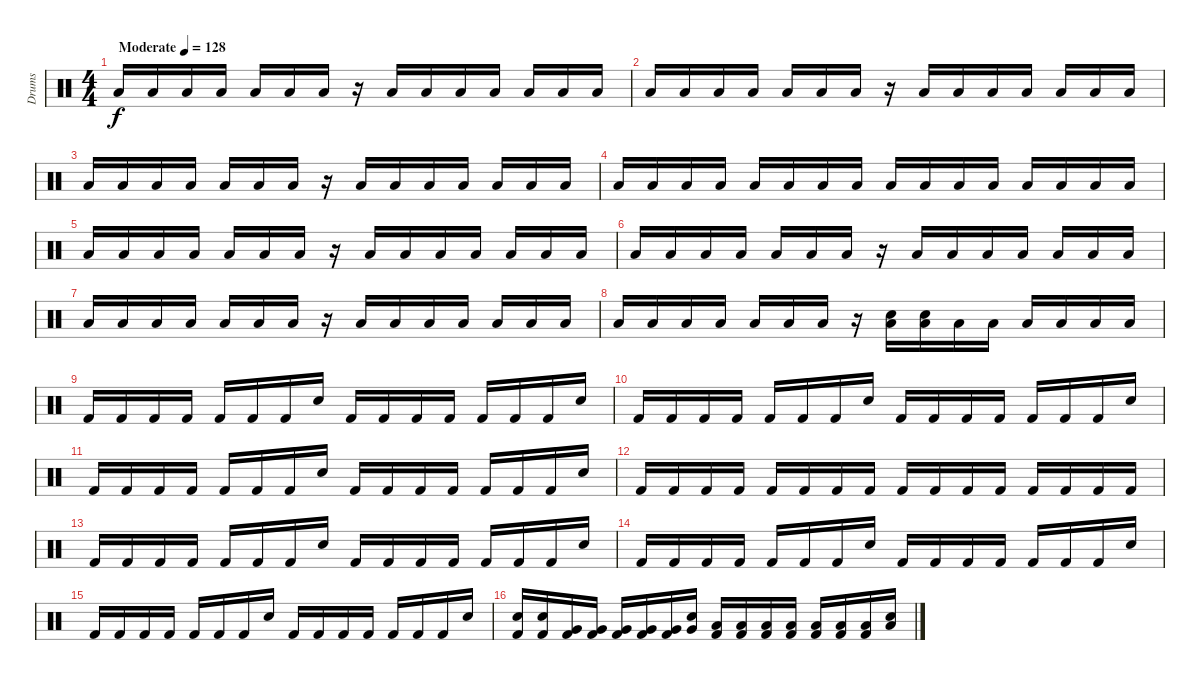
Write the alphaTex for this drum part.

\track ("Drums" "Drums") {instrument percussion}
\staff {score}
\articulation defaults
\ts (4 4)
\tempo (128 "Moderate")
\clef neutral
\ks c "Low Tom (hit)".16{dy f} "Low Tom (hit)".16 "Low Tom (hit)".16 "Low Tom (hit)".16 "Low Tom (hit)".16 "Low Tom (hit)".16 "Low Tom (hit)".16
r.16 "Low Tom (hit)".16 "Low Tom (hit)".16 "Low Tom (hit)".16 "Low Tom (hit)".16 "Low Tom (hit)".16 "Low Tom (hit)".16 "Low Tom (hit)".16 |
"Low Tom (hit)".16 "Low Tom (hit)".16 "Low Tom (hit)".16 "Low Tom (hit)".16 "Low Tom (hit)".16 "Low Tom (hit)".16 "Low Tom (hit)".16 r.16 "Low Tom (hit)".16 "Low Tom (hit)".16 "Low Tom (hit)".16 "Low Tom (hit)".16 "Low Tom (hit)".16 "Low Tom (hit)".16 "Low Tom (hit)".16 |
"Low Tom (hit)".16 "Low Tom (hit)".16 "Low Tom (hit)".16 "Low Tom (hit)".16 "Low Tom (hit)".16 "Low Tom (hit)".16 "Low Tom (hit)".16 r.16 "Low Tom (hit)".16 "Low Tom (hit)".16 "Low Tom (hit)".16 "Low Tom (hit)".16 "Low Tom (hit)".16 "Low Tom (hit)".16 "Low Tom (hit)".16 |
"Low Tom (hit)".16 "Low Tom (hit)".16 "Low Tom (hit)".16 "Low Tom (hit)".16 "Low Tom (hit)".16 "Low Tom (hit)".16 "Low Tom (hit)".16 "Low Tom (hit)".16 "Low Tom (hit)".16 "Low Tom (hit)".16 "Low Tom (hit)".16 "Low Tom (hit)".16 "Low Tom (hit)".16 "Low Tom (hit)".16 "Low Tom (hit)".16 "Low Tom (hit)".16 |
"Low Tom (hit)".16 "Low Tom (hit)".16 "Low Tom (hit)".16 "Low Tom (hit)".16 "Low Tom (hit)".16 "Low Tom (hit)".16 "Low Tom (hit)".16 r.16 "Low Tom (hit)".16 "Low Tom (hit)".16 "Low Tom (hit)".16 "Low Tom (hit)".16 "Low Tom (hit)".16 "Low Tom (hit)".16 "Low Tom (hit)".16 |
"Low Tom (hit)".16 "Low Tom (hit)".16 "Low Tom (hit)".16 "Low Tom (hit)".16 "Low Tom (hit)".16 "Low Tom (hit)".16 "Low Tom (hit)".16 r.16 "Low Tom (hit)".16 "Low Tom (hit)".16 "Low Tom (hit)".16 "Low Tom (hit)".16 "Low Tom (hit)".16 "Low Tom (hit)".16 "Low Tom (hit)".16 |
"Low Tom (hit)".16 "Low Tom (hit)".16 "Low Tom (hit)".16 "Low Tom (hit)".16 "Low Tom (hit)".16 "Low Tom (hit)".16 "Low Tom (hit)".16 r.16 "Low Tom (hit)".16 "Low Tom (hit)".16 "Low Tom (hit)".16 "Low Tom (hit)".16 "Low Tom (hit)".16 "Low Tom (hit)".16 "Low Tom (hit)".16 |
"Low Tom (hit)".16 "Low Tom (hit)".16 "Low Tom (hit)".16 "Low Tom (hit)".16 "Low Tom (hit)".16 "Low Tom (hit)".16 "Low Tom (hit)".16 r.16 ("Electric Snare (hit)" "Low Tom (hit)").16 ("Electric Snare (hit)" "Low Tom (hit)").16 "Low Tom (hit)".16 "Low Tom (hit)".16 "Low Tom (hit)".16 "Low Tom (hit)".16 "Low Tom (hit)".16 "Low Tom (hit)".16 |
"Kick (hit) 2".16 "Kick (hit) 2".16 "Kick (hit) 2".16 "Kick (hit) 2".16 "Kick (hit) 2".16 "Kick (hit) 2".16 "Kick (hit) 2".16 "Snare (hit)".16 "Kick (hit) 2".16 "Kick (hit) 2".16 "Kick (hit) 2".16 "Kick (hit) 2".16 "Kick (hit) 2".16 "Kick (hit) 2".16 "Kick (hit) 2".16 "Snare (hit)".16 |
"Kick (hit) 2".16 "Kick (hit) 2".16 "Kick (hit) 2".16 "Kick (hit) 2".16 "Kick (hit) 2".16 "Kick (hit) 2".16 "Kick (hit) 2".16 "Snare (hit)".16 "Kick (hit) 2".16 "Kick (hit) 2".16 "Kick (hit) 2".16 "Kick (hit) 2".16 "Kick (hit) 2".16 "Kick (hit) 2".16 "Kick (hit) 2".16 "Snare (hit)".16 |
"Kick (hit) 2".16 "Kick (hit) 2".16 "Kick (hit) 2".16 "Kick (hit) 2".16 "Kick (hit) 2".16 "Kick (hit) 2".16 "Kick (hit) 2".16 "Snare (hit)".16 "Kick (hit) 2".16 "Kick (hit) 2".16 "Kick (hit) 2".16 "Kick (hit) 2".16 "Kick (hit) 2".16 "Kick (hit) 2".16 "Kick (hit) 2".16 "Snare (hit)".16 |
"Kick (hit) 2".16 "Kick (hit) 2".16 "Kick (hit) 2".16 "Kick (hit) 2".16 "Kick (hit) 2".16 "Kick (hit) 2".16 "Kick (hit) 2".16 "Kick (hit) 2".16 "Kick (hit) 2".16 "Kick (hit) 2".16 "Kick (hit) 2".16 "Kick (hit) 2".16 "Kick (hit) 2".16 "Kick (hit) 2".16 "Kick (hit) 2".16 "Kick (hit) 2".16 |
"Kick (hit) 2".16 "Kick (hit) 2".16 "Kick (hit) 2".16 "Kick (hit) 2".16 "Kick (hit) 2".16 "Kick (hit) 2".16 "Kick (hit) 2".16 "Snare (hit)".16 "Kick (hit) 2".16 "Kick (hit) 2".16 "Kick (hit) 2".16 "Kick (hit) 2".16 "Kick (hit) 2".16 "Kick (hit) 2".16 "Kick (hit) 2".16 "Snare (hit)".16 |
"Kick (hit) 2".16 "Kick (hit) 2".16 "Kick (hit) 2".16 "Kick (hit) 2".16 "Kick (hit) 2".16 "Kick (hit) 2".16 "Kick (hit) 2".16 "Snare (hit)".16 "Kick (hit) 2".16 "Kick (hit) 2".16 "Kick (hit) 2".16 "Kick (hit) 2".16 "Kick (hit) 2".16 "Kick (hit) 2".16 "Kick (hit) 2".16 "Snare (hit)".16 |
"Kick (hit) 2".16 "Kick (hit) 2".16 "Kick (hit) 2".16 "Kick (hit) 2".16 "Kick (hit) 2".16 "Kick (hit) 2".16 "Kick (hit) 2".16 "Snare (hit)".16 "Kick (hit) 2".16 "Kick (hit) 2".16 "Kick (hit) 2".16 "Kick (hit) 2".16 "Kick (hit) 2".16 "Kick (hit) 2".16 "Kick (hit) 2".16 "Snare (hit)".16 |
("Electric Snare (hit)" "Kick (hit) 2").16 ("Electric Snare (hit)" "Kick (hit) 2").16 ("Very Low Tom (hit)" "Kick (hit) 2").16 ("Very Low Tom (hit)" "Kick (hit) 2").16 ("Very Low Tom (hit)" "Kick (hit) 2").16 ("Very Low Tom (hit)" "Kick (hit) 2").16 ("Very Low Tom (hit)" "Kick (hit) 2").16 ("Very Low Tom (hit)" "Snare (hit)").16 ("Low Floor Tom (hit)" "Kick (hit) 2").16 ("Low Floor Tom (hit)" "Kick (hit) 2").16 ("Low Floor Tom (hit)" "Kick (hit) 2").16 ("Low Floor Tom (hit)" "Kick (hit) 2").16 ("Low Floor Tom (hit)" "Kick (hit) 2").16 ("Low Floor Tom (hit)" "Kick (hit) 2").16 ("Low Floor Tom (hit)" "Kick (hit) 2").16 ("Low Floor Tom (hit)" "Snare (hit)").16
